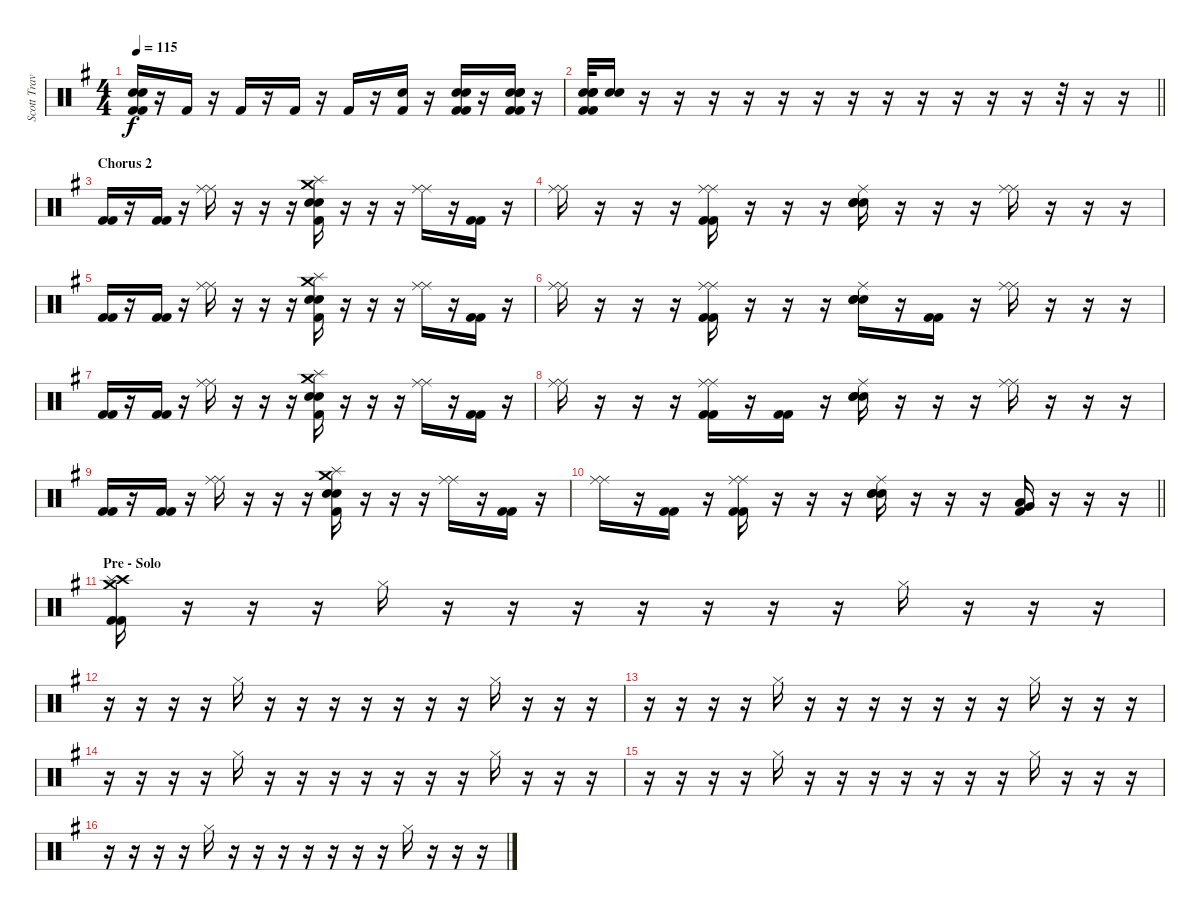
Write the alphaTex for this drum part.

\track ("Scott Travis" "Scott Trav") {instrument percussion}
\staff {score}
\articulation defaults
\ts (4 4)
\tempo 115
\clef neutral
\ks eminor
("Snare (hit) 2" "Snare (hit) 2" "Kick (hit) 2" "Kick (hit) 2").16{dy f} r.16 "Kick (hit) 2".16 r.16 "Kick (hit) 2".16 r.16 "Kick (hit) 2".16 r.16 "Kick (hit) 2".16 r.16 ("Snare (hit) 2" "Kick (hit) 2").16 r.16 ("Snare (hit) 2" "Snare (hit) 2" "Kick (hit) 2" "Kick (hit) 2").16 r.16 ("Snare (hit) 2" "Snare (hit) 2" "Snare (hit) 2" "Kick (hit) 2" "Kick (hit) 2").16 r.16 |
\barLineRight lightlight
("Snare (hit) 2" "Snare (hit) 2" "Snare (hit) 2" "Kick (hit) 2" "Kick (hit) 2").32 ("Snare (hit) 2" "Snare (hit) 2").16 r.16 r.16 r.16 r.16 r.16 r.16 r.16 r.16 r.16 r.16 r.16 r.16 r.32 r.16 r.16 |
\section ("" "Chorus 2")
("Kick (hit) 2" "Kick (hit) 2").16 r.16 ("Kick (hit) 2" "Kick (hit) 2").16 r.16 ("Ride (middle)" "Ride (middle)").16 r.16 r.16 r.16 ("Crash medium (hit)" "Splash (hit)" "Snare (hit) 2" "Snare (hit) 2" "Kick (hit) 2").16 r.16 r.16 r.16 ("Ride (middle)" "Ride (middle)").16 r.16 ("Kick (hit) 2" "Kick (hit) 2").16 r.16 |
("Ride (middle)" "Ride (middle)").16 r.16 r.16 r.16 ("Ride (middle)" "Ride (middle)" "Kick (hit) 2" "Kick (hit) 2").16 r.16 r.16 r.16 ("Ride (middle)" "Snare (hit) 2" "Snare (hit) 2" "Snare (hit) 2").16 r.16 r.16 r.16 ("Ride (middle)" "Ride (middle)").16 r.16 r.16 r.16 |
("Kick (hit) 2" "Kick (hit) 2").16 r.16 ("Kick (hit) 2" "Kick (hit) 2").16 r.16 ("Ride (middle)" "Ride (middle)").16 r.16 r.16 r.16 ("Crash medium (hit)" "Splash (hit)" "Snare (hit) 2" "Snare (hit) 2" "Kick (hit) 2").16 r.16 r.16 r.16 ("Ride (middle)" "Ride (middle)").16 r.16 ("Kick (hit) 2" "Kick (hit) 2").16 r.16 |
("Ride (middle)" "Ride (middle)").16 r.16 r.16 r.16 ("Ride (middle)" "Ride (middle)" "Kick (hit) 2" "Kick (hit) 2").16 r.16 r.16 r.16 ("Ride (middle)" "Snare (hit) 2" "Snare (hit) 2" "Snare (hit) 2").16 r.16 ("Kick (hit) 2" "Kick (hit) 2").16 r.16 ("Ride (middle)" "Ride (middle)").16 r.16 r.16 r.16 |
("Kick (hit) 2" "Kick (hit) 2").16 r.16 ("Kick (hit) 2" "Kick (hit) 2").16 r.16 ("Ride (middle)" "Ride (middle)").16 r.16 r.16 r.16 ("Crash medium (hit)" "Splash (hit)" "Snare (hit) 2" "Snare (hit) 2" "Kick (hit) 2").16 r.16 r.16 r.16 ("Ride (middle)" "Ride (middle)").16 r.16 ("Kick (hit) 2" "Kick (hit) 2").16 r.16 |
("Ride (middle)" "Ride (middle)").16 r.16 r.16 r.16 ("Ride (middle)" "Ride (middle)" "Kick (hit) 2" "Kick (hit) 2").16 r.16 ("Kick (hit) 2" "Kick (hit) 2").16 r.16 ("Ride (middle)" "Snare (hit) 2" "Snare (hit) 2" "Snare (hit) 2").16 r.16 r.16 r.16 ("Ride (middle)" "Ride (middle)").16 r.16 r.16 r.16 |
("Kick (hit) 2" "Kick (hit) 2").16 r.16 ("Kick (hit) 2" "Kick (hit) 2").16 r.16 ("Ride (middle)" "Ride (middle)").16 r.16 r.16 r.16 ("Crash medium (hit)" "Splash (hit)" "Snare (hit) 2" "Snare (hit) 2" "Kick (hit) 2").16 r.16 r.16 r.16 ("Ride (middle)" "Ride (middle)").16 r.16 ("Kick (hit) 2" "Kick (hit) 2").16 r.16 |
\barLineRight lightlight
("Ride (middle)" "Ride (middle)").16 r.16 ("Kick (hit) 2" "Kick (hit) 2").16 r.16 ("Ride (middle)" "Ride (middle)" "Kick (hit) 2" "Kick (hit) 2").16 r.16 r.16 r.16 ("Ride (middle)" "Snare (hit) 2" "Snare (hit) 2" "Snare (hit) 2").16 r.16 r.16 r.16 ("Very Low Tom (hit)" "Low Floor Tom (hit)" "Kick (hit) 2").16 r.16 r.16 r.16 |
\section ("" "Pre - Solo")
("Crash medium (hit)" "Crash high (hit)" "Splash (hit)" "Kick (hit) 2" "Kick (hit) 2").16 r.16 r.16 r.16 "Hi-Hat (closed)".16 r.16 r.16 r.16 r.16 r.16 r.16 r.16 "Hi-Hat (closed)".16 r.16 r.16 r.16 |
r.16 r.16 r.16 r.16 "Hi-Hat (closed)".16 r.16 r.16 r.16 r.16 r.16 r.16 r.16 "Hi-Hat (closed)".16 r.16 r.16 r.16 |
r.16 r.16 r.16 r.16 "Hi-Hat (closed)".16 r.16 r.16 r.16 r.16 r.16 r.16 r.16 "Hi-Hat (closed)".16 r.16 r.16 r.16 |
r.16 r.16 r.16 r.16 "Hi-Hat (closed)".16 r.16 r.16 r.16 r.16 r.16 r.16 r.16 "Hi-Hat (closed)".16 r.16 r.16 r.16 |
r.16 r.16 r.16 r.16 "Hi-Hat (closed)".16 r.16 r.16 r.16 r.16 r.16 r.16 r.16 "Hi-Hat (closed)".16 r.16 r.16 r.16 |
r.16 r.16 r.16 r.16 "Hi-Hat (closed)".16 r.16 r.16 r.16 r.16 r.16 r.16 r.16 "Hi-Hat (closed)".16 r.16 r.16 r.16
